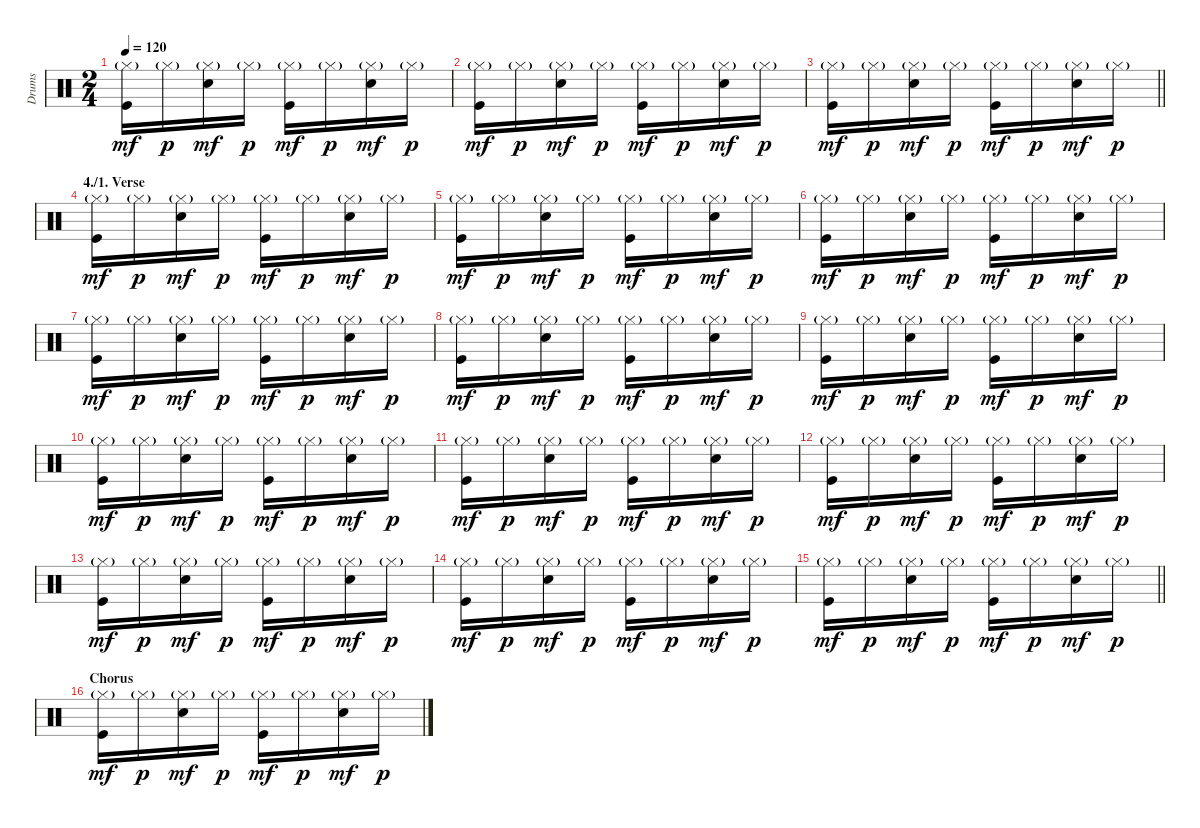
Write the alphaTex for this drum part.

\track ("Drums" "Drums") {instrument percussion}
\staff {score}
\articulation defaults
\ts (2 4)
\tempo 120
\clef neutral
\ks c
("Hi-Hat (closed)"{g} "Kick (hit)").16{dy mf} "Hi-Hat (closed)"{g}.16{dy p} ("Hi-Hat (closed)"{g} "Snare (hit) 2").16{dy mf} "Hi-Hat (closed)"{g}.16{dy p} ("Hi-Hat (closed)"{g} "Kick (hit)").16{dy mf} "Hi-Hat (closed)"{g}.16{dy p} ("Hi-Hat (closed)"{g} "Snare (hit) 2").16{dy mf} "Hi-Hat (closed)"{g}.16{dy p} |
("Hi-Hat (closed)"{g} "Kick (hit)").16{dy mf} "Hi-Hat (closed)"{g}.16{dy p} ("Hi-Hat (closed)"{g} "Snare (hit) 2").16{dy mf} "Hi-Hat (closed)"{g}.16{dy p} ("Hi-Hat (closed)"{g} "Kick (hit)").16{dy mf} "Hi-Hat (closed)"{g}.16{dy p} ("Hi-Hat (closed)"{g} "Snare (hit) 2").16{dy mf} "Hi-Hat (closed)"{g}.16{dy p} |
\barLineRight lightlight
("Hi-Hat (closed)"{g} "Kick (hit)").16{dy mf} "Hi-Hat (closed)"{g}.16{dy p} ("Hi-Hat (closed)"{g} "Snare (hit) 2").16{dy mf} "Hi-Hat (closed)"{g}.16{dy p} ("Hi-Hat (closed)"{g} "Kick (hit)").16{dy mf} "Hi-Hat (closed)"{g}.16{dy p} ("Hi-Hat (closed)"{g} "Snare (hit) 2").16{dy mf} "Hi-Hat (closed)"{g}.16{dy p} |
\section ("" "4./1. Verse")
("Hi-Hat (closed)"{g} "Kick (hit)").16{dy mf} "Hi-Hat (closed)"{g}.16{dy p} ("Hi-Hat (closed)"{g} "Snare (hit) 2").16{dy mf} "Hi-Hat (closed)"{g}.16{dy p} ("Hi-Hat (closed)"{g} "Kick (hit)").16{dy mf} "Hi-Hat (closed)"{g}.16{dy p} ("Hi-Hat (closed)"{g} "Snare (hit) 2").16{dy mf} "Hi-Hat (closed)"{g}.16{dy p} |
("Hi-Hat (closed)"{g} "Kick (hit)").16{dy mf} "Hi-Hat (closed)"{g}.16{dy p} ("Hi-Hat (closed)"{g} "Snare (hit) 2").16{dy mf} "Hi-Hat (closed)"{g}.16{dy p} ("Hi-Hat (closed)"{g} "Kick (hit)").16{dy mf} "Hi-Hat (closed)"{g}.16{dy p} ("Hi-Hat (closed)"{g} "Snare (hit) 2").16{dy mf} "Hi-Hat (closed)"{g}.16{dy p} |
("Hi-Hat (closed)"{g} "Kick (hit)").16{dy mf} "Hi-Hat (closed)"{g}.16{dy p} ("Hi-Hat (closed)"{g} "Snare (hit) 2").16{dy mf} "Hi-Hat (closed)"{g}.16{dy p} ("Hi-Hat (closed)"{g} "Kick (hit)").16{dy mf} "Hi-Hat (closed)"{g}.16{dy p} ("Hi-Hat (closed)"{g} "Snare (hit) 2").16{dy mf} "Hi-Hat (closed)"{g}.16{dy p} |
("Hi-Hat (closed)"{g} "Kick (hit)").16{dy mf} "Hi-Hat (closed)"{g}.16{dy p} ("Hi-Hat (closed)"{g} "Snare (hit) 2").16{dy mf} "Hi-Hat (closed)"{g}.16{dy p} ("Hi-Hat (closed)"{g} "Kick (hit)").16{dy mf} "Hi-Hat (closed)"{g}.16{dy p} ("Hi-Hat (closed)"{g} "Snare (hit) 2").16{dy mf} "Hi-Hat (closed)"{g}.16{dy p} |
("Hi-Hat (closed)"{g} "Kick (hit)").16{dy mf} "Hi-Hat (closed)"{g}.16{dy p} ("Hi-Hat (closed)"{g} "Snare (hit) 2").16{dy mf} "Hi-Hat (closed)"{g}.16{dy p} ("Hi-Hat (closed)"{g} "Kick (hit)").16{dy mf} "Hi-Hat (closed)"{g}.16{dy p} ("Hi-Hat (closed)"{g} "Snare (hit) 2").16{dy mf} "Hi-Hat (closed)"{g}.16{dy p} |
("Hi-Hat (closed)"{g} "Kick (hit)").16{dy mf} "Hi-Hat (closed)"{g}.16{dy p} ("Hi-Hat (closed)"{g} "Snare (hit) 2").16{dy mf} "Hi-Hat (closed)"{g}.16{dy p} ("Hi-Hat (closed)"{g} "Kick (hit)").16{dy mf} "Hi-Hat (closed)"{g}.16{dy p} ("Hi-Hat (closed)"{g} "Snare (hit) 2").16{dy mf} "Hi-Hat (closed)"{g}.16{dy p} |
("Hi-Hat (closed)"{g} "Kick (hit)").16{dy mf} "Hi-Hat (closed)"{g}.16{dy p} ("Hi-Hat (closed)"{g} "Snare (hit) 2").16{dy mf} "Hi-Hat (closed)"{g}.16{dy p} ("Hi-Hat (closed)"{g} "Kick (hit)").16{dy mf} "Hi-Hat (closed)"{g}.16{dy p} ("Hi-Hat (closed)"{g} "Snare (hit) 2").16{dy mf} "Hi-Hat (closed)"{g}.16{dy p} |
("Hi-Hat (closed)"{g} "Kick (hit)").16{dy mf} "Hi-Hat (closed)"{g}.16{dy p} ("Hi-Hat (closed)"{g} "Snare (hit) 2").16{dy mf} "Hi-Hat (closed)"{g}.16{dy p} ("Hi-Hat (closed)"{g} "Kick (hit)").16{dy mf} "Hi-Hat (closed)"{g}.16{dy p} ("Hi-Hat (closed)"{g} "Snare (hit) 2").16{dy mf} "Hi-Hat (closed)"{g}.16{dy p} |
("Hi-Hat (closed)"{g} "Kick (hit)").16{dy mf} "Hi-Hat (closed)"{g}.16{dy p} ("Hi-Hat (closed)"{g} "Snare (hit) 2").16{dy mf} "Hi-Hat (closed)"{g}.16{dy p} ("Hi-Hat (closed)"{g} "Kick (hit)").16{dy mf} "Hi-Hat (closed)"{g}.16{dy p} ("Hi-Hat (closed)"{g} "Snare (hit) 2").16{dy mf} "Hi-Hat (closed)"{g}.16{dy p} |
("Hi-Hat (closed)"{g} "Kick (hit)").16{dy mf} "Hi-Hat (closed)"{g}.16{dy p} ("Hi-Hat (closed)"{g} "Snare (hit) 2").16{dy mf} "Hi-Hat (closed)"{g}.16{dy p} ("Hi-Hat (closed)"{g} "Kick (hit)").16{dy mf} "Hi-Hat (closed)"{g}.16{dy p} ("Hi-Hat (closed)"{g} "Snare (hit) 2").16{dy mf} "Hi-Hat (closed)"{g}.16{dy p} |
("Hi-Hat (closed)"{g} "Kick (hit)").16{dy mf} "Hi-Hat (closed)"{g}.16{dy p} ("Hi-Hat (closed)"{g} "Snare (hit) 2").16{dy mf} "Hi-Hat (closed)"{g}.16{dy p} ("Hi-Hat (closed)"{g} "Kick (hit)").16{dy mf} "Hi-Hat (closed)"{g}.16{dy p} ("Hi-Hat (closed)"{g} "Snare (hit) 2").16{dy mf} "Hi-Hat (closed)"{g}.16{dy p} |
\barLineRight lightlight
("Hi-Hat (closed)"{g} "Kick (hit)").16{dy mf} "Hi-Hat (closed)"{g}.16{dy p} ("Hi-Hat (closed)"{g} "Snare (hit) 2").16{dy mf} "Hi-Hat (closed)"{g}.16{dy p} ("Hi-Hat (closed)"{g} "Kick (hit)").16{dy mf} "Hi-Hat (closed)"{g}.16{dy p} ("Hi-Hat (closed)"{g} "Snare (hit) 2").16{dy mf} "Hi-Hat (closed)"{g}.16{dy p} |
\section ("" "Chorus")
("Hi-Hat (closed)"{g} "Kick (hit)").16{dy mf} "Hi-Hat (closed)"{g}.16{dy p} ("Hi-Hat (closed)"{g} "Snare (hit) 2").16{dy mf} "Hi-Hat (closed)"{g}.16{dy p} ("Hi-Hat (closed)"{g} "Kick (hit)").16{dy mf} "Hi-Hat (closed)"{g}.16{dy p} ("Hi-Hat (closed)"{g} "Snare (hit) 2").16{dy mf} "Hi-Hat (closed)"{g}.16{dy p}
